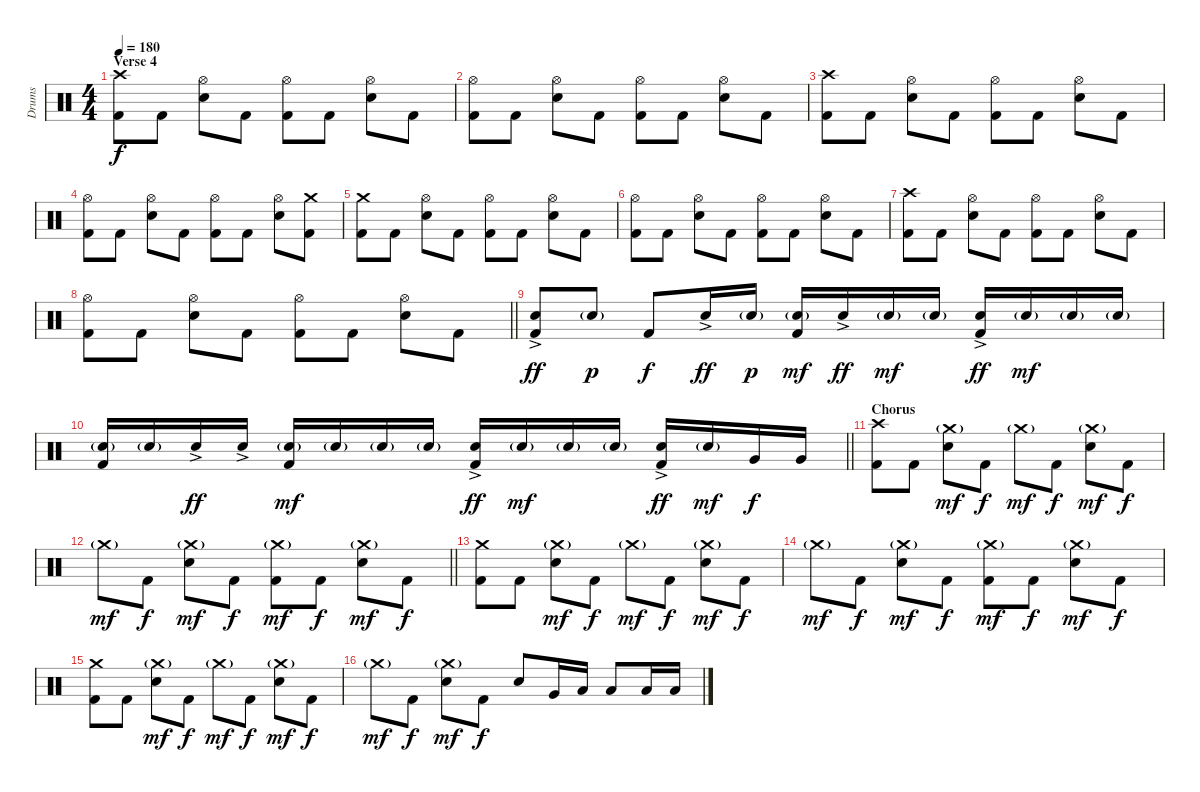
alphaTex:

\track ("Drums" "Drums") {instrument percussion}
\staff {score}
\articulation defaults
\ts (4 4)
\section ("" "Verse 4")
\tempo 180
\clef neutral
\ks c
("Crash high (hit)" "Kick (hit) 2").8{dy f} "Kick (hit) 2".8 ("Hi-Hat (open)" "Electric Snare (hit)").8 "Kick (hit) 2".8 ("Hi-Hat (open)" "Kick (hit) 2").8 "Kick (hit) 2".8 ("Hi-Hat (open)" "Electric Snare (hit)").8 "Kick (hit) 2".8 |
("Hi-Hat (open)" "Kick (hit) 2").8 "Kick (hit) 2".8 ("Hi-Hat (open)" "Electric Snare (hit)").8 "Kick (hit) 2".8 ("Hi-Hat (open)" "Kick (hit) 2").8 "Kick (hit) 2".8 ("Hi-Hat (open)" "Electric Snare (hit)").8 "Kick (hit) 2".8 |
("Crash high (hit)" "Kick (hit) 2").8 "Kick (hit) 2".8 ("Hi-Hat (open)" "Electric Snare (hit)").8 "Kick (hit) 2".8 ("Hi-Hat (open)" "Kick (hit) 2").8 "Kick (hit) 2".8 ("Hi-Hat (open)" "Electric Snare (hit)").8 "Kick (hit) 2".8 |
("Hi-Hat (open)" "Kick (hit) 2").8 "Kick (hit) 2".8 ("Hi-Hat (open)" "Electric Snare (hit)").8 "Kick (hit) 2".8 ("Hi-Hat (open)" "Kick (hit) 2").8 "Kick (hit) 2".8 ("Hi-Hat (open)" "Electric Snare (hit)").8 ("Crash medium (hit)" "Kick (hit) 2").8 |
("Crash medium (hit)" "Kick (hit) 2").8 "Kick (hit) 2".8 ("Hi-Hat (open)" "Electric Snare (hit)").8 "Kick (hit) 2".8 ("Hi-Hat (open)" "Kick (hit) 2").8 "Kick (hit) 2".8 ("Hi-Hat (open)" "Electric Snare (hit)").8 "Kick (hit) 2".8 |
("Hi-Hat (open)" "Kick (hit) 2").8 "Kick (hit) 2".8 ("Hi-Hat (open)" "Electric Snare (hit)").8 "Kick (hit) 2".8 ("Hi-Hat (open)" "Kick (hit) 2").8 "Kick (hit) 2".8 ("Hi-Hat (open)" "Electric Snare (hit)").8 "Kick (hit) 2".8 |
("Crash high (hit)" "Kick (hit) 2").8 "Kick (hit) 2".8 ("Hi-Hat (open)" "Electric Snare (hit)").8 "Kick (hit) 2".8 ("Hi-Hat (open)" "Kick (hit) 2").8 "Kick (hit) 2".8 ("Hi-Hat (open)" "Electric Snare (hit)").8 "Kick (hit) 2".8 |
\barLineRight lightlight
("Hi-Hat (open)" "Kick (hit) 2").8 "Kick (hit) 2".8 ("Hi-Hat (open)" "Electric Snare (hit)").8 "Kick (hit) 2".8 ("Hi-Hat (open)" "Kick (hit) 2").8 "Kick (hit) 2".8 ("Hi-Hat (open)" "Electric Snare (hit)").8 "Kick (hit) 2".8 |
("Electric Snare (hit)"{ac} "Kick (hit) 2").8{dy ff} "Electric Snare (hit)"{g}.8{dy p} "Kick (hit) 2".8{dy f} "Electric Snare (hit)"{ac}.16{dy ff} "Electric Snare (hit)"{g}.16{dy p} ("Electric Snare (hit)"{g} "Kick (hit) 2").16{dy mf} "Electric Snare (hit)"{ac}.16{dy ff} "Electric Snare (hit)"{g}.16{dy mf} "Electric Snare (hit)"{g}.16 ("Electric Snare (hit)"{ac} "Kick (hit) 2").16{dy ff} "Electric Snare (hit)"{g}.16{dy mf} "Electric Snare (hit)"{g}.16 "Electric Snare (hit)"{g}.16 |
\barLineRight lightlight
("Electric Snare (hit)"{g} "Kick (hit) 2").16 "Electric Snare (hit)"{g}.16 "Electric Snare (hit)"{ac}.16{dy ff} "Electric Snare (hit)"{ac}.16 ("Electric Snare (hit)"{g} "Kick (hit) 2").16{dy mf} "Electric Snare (hit)"{g}.16 "Electric Snare (hit)"{g}.16 "Electric Snare (hit)"{g}.16 ("Electric Snare (hit)"{ac} "Kick (hit) 2").16{dy ff} "Electric Snare (hit)"{g}.16{dy mf} "Electric Snare (hit)"{g}.16 "Electric Snare (hit)"{g}.16 ("Electric Snare (hit)"{ac} "Kick (hit) 2").16{dy ff} "Electric Snare (hit)"{g}.16{dy mf} "Very Low Tom (hit)".16{dy f} "Very Low Tom (hit)".16 |
\section ("" "Chorus")
("Crash high (hit)" "Kick (hit) 2").8 "Kick (hit) 2".8 ("Crash medium (hit)"{g} "Electric Snare (hit)").8{dy mf} "Kick (hit) 2".8{dy f} "Crash medium (hit)"{g}.8{dy mf} "Kick (hit) 2".8{dy f} ("Crash medium (hit)"{g} "Electric Snare (hit)").8{dy mf} "Kick (hit) 2".8{dy f} |
\barLineRight lightlight "Crash medium (hit)"{g}.8{dy mf} "Kick (hit) 2".8{dy f}
("Crash medium (hit)"{g} "Electric Snare (hit)").8{dy mf} "Kick (hit) 2".8{dy f} ("Crash medium (hit)"{g} "Kick (hit) 2").8{dy mf} "Kick (hit) 2".8{dy f} ("Crash medium (hit)"{g} "Electric Snare (hit)").8{dy mf} "Kick (hit) 2".8{dy f} |
("Crash medium (hit)" "Kick (hit) 2").8 "Kick (hit) 2".8 ("Crash medium (hit)"{g} "Electric Snare (hit)").8{dy mf} "Kick (hit) 2".8{dy f} "Crash medium (hit)"{g}.8{dy mf} "Kick (hit) 2".8{dy f} ("Crash medium (hit)"{g} "Electric Snare (hit)").8{dy mf} "Kick (hit) 2".8{dy f} |
"Crash medium (hit)"{g}.8{dy mf} "Kick (hit) 2".8{dy f} ("Crash medium (hit)"{g} "Electric Snare (hit)").8{dy mf} "Kick (hit) 2".8{dy f} ("Crash medium (hit)"{g} "Kick (hit) 2").8{dy mf} "Kick (hit) 2".8{dy f} ("Crash medium (hit)"{g} "Electric Snare (hit)").8{dy mf} "Kick (hit) 2".8{dy f} |
("Crash medium (hit)" "Kick (hit) 2").8 "Kick (hit) 2".8 ("Crash medium (hit)"{g} "Electric Snare (hit)").8{dy mf} "Kick (hit) 2".8{dy f} "Crash medium (hit)"{g}.8{dy mf} "Kick (hit) 2".8{dy f} ("Crash medium (hit)"{g} "Electric Snare (hit)").8{dy mf} "Kick (hit) 2".8{dy f} |
"Crash medium (hit)"{g}.8{dy mf} "Kick (hit) 2".8{dy f} ("Crash medium (hit)"{g} "Electric Snare (hit)").8{dy mf} "Kick (hit) 2".8{dy f} "Electric Snare (hit)".8 "Very Low Tom (hit)".16 "Low Tom (hit)".16 "Low Floor Tom (hit)".8 "Low Floor Tom (hit)".16 "Low Floor Tom (hit)".16
